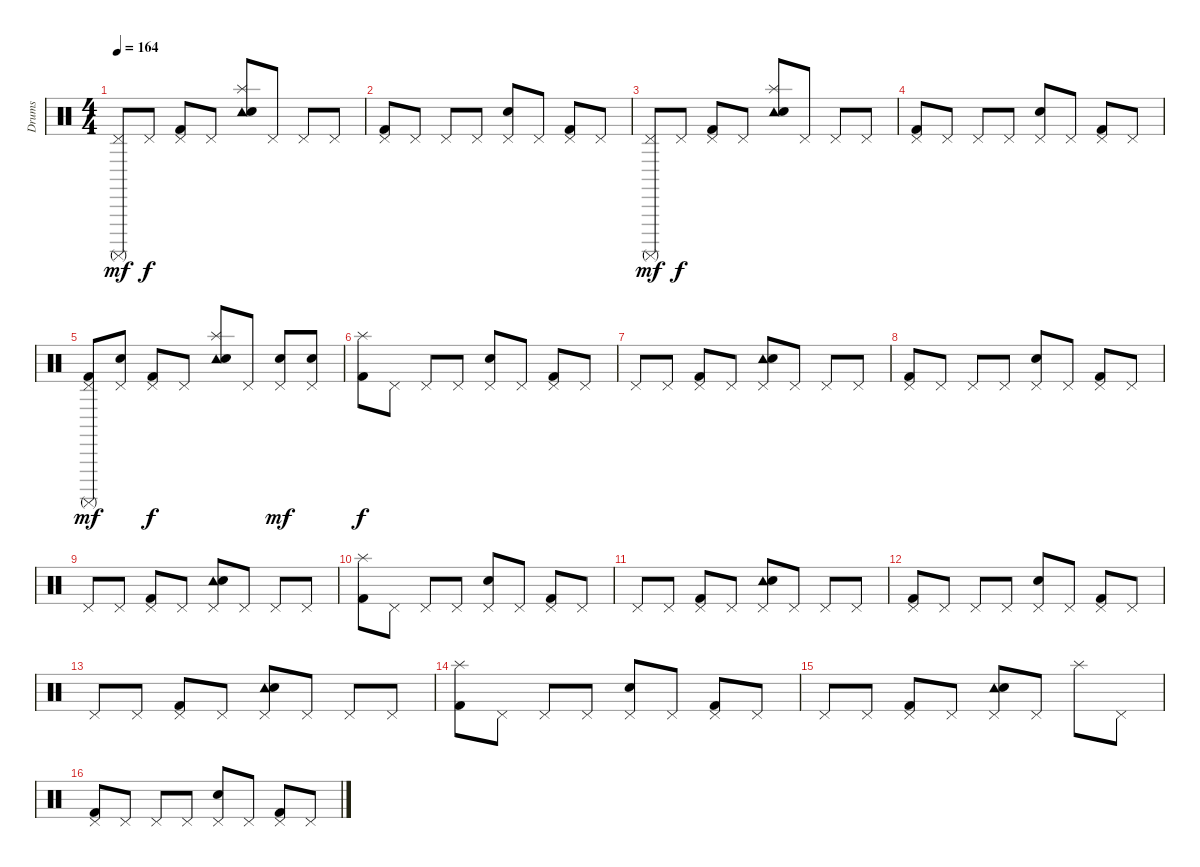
\track ("Drums" "Drums") {instrument percussion}
\staff {score}
\articulation defaults
\ts (4 4)
\tempo 164
\clef neutral
\ks c
("Pedal Hi-Hat (hit)" "Surdo (mute)").8{dy mf} "Pedal Hi-Hat (hit)".8{dy f} ("Pedal Hi-Hat (hit)" "Kick (hit) 2").8 "Pedal Hi-Hat (hit)".8 ("Tambourine (hit)" "Splash (hit)" "Snare (hit) 2").8 "Pedal Hi-Hat (hit)".8 "Pedal Hi-Hat (hit)".8 "Pedal Hi-Hat (hit)".8 |
("Pedal Hi-Hat (hit)" "Kick (hit) 2").8 "Pedal Hi-Hat (hit)".8 "Pedal Hi-Hat (hit)".8 "Pedal Hi-Hat (hit)".8 ("Pedal Hi-Hat (hit)" "Snare (hit) 2").8 "Pedal Hi-Hat (hit)".8 ("Pedal Hi-Hat (hit)" "Kick (hit) 2").8 "Pedal Hi-Hat (hit)".8 |
("Pedal Hi-Hat (hit)" "Surdo (mute)").8{dy mf} "Pedal Hi-Hat (hit)".8{dy f} ("Pedal Hi-Hat (hit)" "Kick (hit) 2").8 "Pedal Hi-Hat (hit)".8 ("Tambourine (hit)" "Splash (hit)" "Snare (hit) 2").8 "Pedal Hi-Hat (hit)".8 "Pedal Hi-Hat (hit)".8 "Pedal Hi-Hat (hit)".8 |
("Pedal Hi-Hat (hit)" "Kick (hit) 2").8 "Pedal Hi-Hat (hit)".8 "Pedal Hi-Hat (hit)".8 "Pedal Hi-Hat (hit)".8 ("Pedal Hi-Hat (hit)" "Snare (hit) 2").8 "Pedal Hi-Hat (hit)".8 ("Pedal Hi-Hat (hit)" "Kick (hit) 2").8 "Pedal Hi-Hat (hit)".8 |
("Pedal Hi-Hat (hit)" "Kick (hit) 2" "Surdo (mute)").8{dy mf} ("Pedal Hi-Hat (hit)" "Snare (hit) 2").8 ("Pedal Hi-Hat (hit)" "Kick (hit) 2").8{dy f} "Pedal Hi-Hat (hit)".8 ("Tambourine (hit)" "Splash (hit)" "Snare (hit) 2").8 "Pedal Hi-Hat (hit)".8 ("Pedal Hi-Hat (hit)" "Snare (hit) 2").8{dy mf} ("Pedal Hi-Hat (hit)" "Snare (hit) 2").8 |
("Splash (hit)" "Kick (hit) 2").8{dy f} "Pedal Hi-Hat (hit)".8 "Pedal Hi-Hat (hit)".8 "Pedal Hi-Hat (hit)".8 ("Pedal Hi-Hat (hit)" "Snare (hit) 2").8 "Pedal Hi-Hat (hit)".8 ("Pedal Hi-Hat (hit)" "Kick (hit) 2").8 "Pedal Hi-Hat (hit)".8 |
"Pedal Hi-Hat (hit)".8 "Pedal Hi-Hat (hit)".8 ("Pedal Hi-Hat (hit)" "Kick (hit) 2").8 "Pedal Hi-Hat (hit)".8 ("Tambourine (hit)" "Pedal Hi-Hat (hit)" "Snare (hit) 2").8 "Pedal Hi-Hat (hit)".8 "Pedal Hi-Hat (hit)".8 "Pedal Hi-Hat (hit)".8 |
("Pedal Hi-Hat (hit)" "Kick (hit) 2").8 "Pedal Hi-Hat (hit)".8 "Pedal Hi-Hat (hit)".8 "Pedal Hi-Hat (hit)".8 ("Pedal Hi-Hat (hit)" "Snare (hit) 2").8 "Pedal Hi-Hat (hit)".8 ("Pedal Hi-Hat (hit)" "Kick (hit) 2").8 "Pedal Hi-Hat (hit)".8 |
"Pedal Hi-Hat (hit)".8 "Pedal Hi-Hat (hit)".8 ("Pedal Hi-Hat (hit)" "Kick (hit) 2").8 "Pedal Hi-Hat (hit)".8 ("Tambourine (hit)" "Pedal Hi-Hat (hit)" "Snare (hit) 2").8 "Pedal Hi-Hat (hit)".8 "Pedal Hi-Hat (hit)".8 "Pedal Hi-Hat (hit)".8 |
("Splash (hit)" "Kick (hit) 2").8 "Pedal Hi-Hat (hit)".8 "Pedal Hi-Hat (hit)".8 "Pedal Hi-Hat (hit)".8 ("Pedal Hi-Hat (hit)" "Snare (hit) 2").8 "Pedal Hi-Hat (hit)".8 ("Pedal Hi-Hat (hit)" "Kick (hit) 2").8 "Pedal Hi-Hat (hit)".8 |
"Pedal Hi-Hat (hit)".8 "Pedal Hi-Hat (hit)".8 ("Pedal Hi-Hat (hit)" "Kick (hit) 2").8 "Pedal Hi-Hat (hit)".8 ("Tambourine (hit)" "Pedal Hi-Hat (hit)" "Snare (hit) 2").8 "Pedal Hi-Hat (hit)".8 "Pedal Hi-Hat (hit)".8 "Pedal Hi-Hat (hit)".8 |
("Pedal Hi-Hat (hit)" "Kick (hit) 2").8 "Pedal Hi-Hat (hit)".8 "Pedal Hi-Hat (hit)".8 "Pedal Hi-Hat (hit)".8 ("Pedal Hi-Hat (hit)" "Snare (hit) 2").8 "Pedal Hi-Hat (hit)".8 ("Pedal Hi-Hat (hit)" "Kick (hit) 2").8 "Pedal Hi-Hat (hit)".8 |
"Pedal Hi-Hat (hit)".8 "Pedal Hi-Hat (hit)".8 ("Pedal Hi-Hat (hit)" "Kick (hit) 2").8 "Pedal Hi-Hat (hit)".8 ("Tambourine (hit)" "Pedal Hi-Hat (hit)" "Snare (hit) 2").8 "Pedal Hi-Hat (hit)".8 "Pedal Hi-Hat (hit)".8 "Pedal Hi-Hat (hit)".8 |
("Splash (hit)" "Kick (hit) 2").8 "Pedal Hi-Hat (hit)".8 "Pedal Hi-Hat (hit)".8 "Pedal Hi-Hat (hit)".8 ("Pedal Hi-Hat (hit)" "Snare (hit) 2").8 "Pedal Hi-Hat (hit)".8 ("Pedal Hi-Hat (hit)" "Kick (hit) 2").8 "Pedal Hi-Hat (hit)".8 |
"Pedal Hi-Hat (hit)".8 "Pedal Hi-Hat (hit)".8 ("Pedal Hi-Hat (hit)" "Kick (hit) 2").8 "Pedal Hi-Hat (hit)".8 ("Tambourine (hit)" "Pedal Hi-Hat (hit)" "Snare (hit) 2").8 "Pedal Hi-Hat (hit)".8 "Splash (hit)".8 "Pedal Hi-Hat (hit)".8 |
("Pedal Hi-Hat (hit)" "Kick (hit) 2").8 "Pedal Hi-Hat (hit)".8 "Pedal Hi-Hat (hit)".8 "Pedal Hi-Hat (hit)".8 ("Pedal Hi-Hat (hit)" "Snare (hit) 2").8 "Pedal Hi-Hat (hit)".8 ("Pedal Hi-Hat (hit)" "Kick (hit) 2").8 "Pedal Hi-Hat (hit)".8
